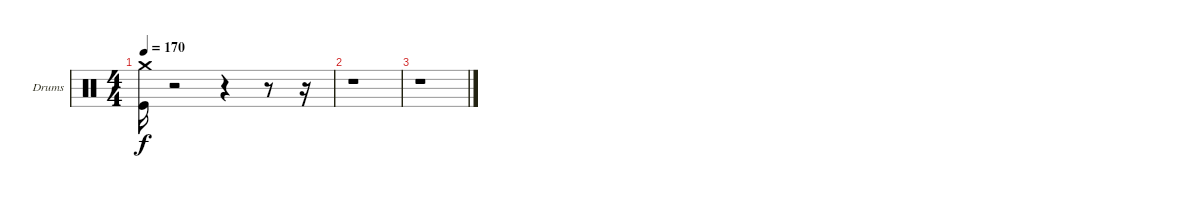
\bracketExtendMode groupsimilarinstruments
\firstSystemTrackNameOrientation horizontal
\otherSystemsTrackNameOrientation horizontal
\track ("Thomas" "Drums") {instrument percussion}
\staff {score}
\articulation defaults
\ts (4 4)
\tempo 170
\clef neutral
\ks c
("Kick (hit)" "Crash medium (hit)").16{dy f} r.2 r.4 r.8 r.16 |
r.1 |
r.1
